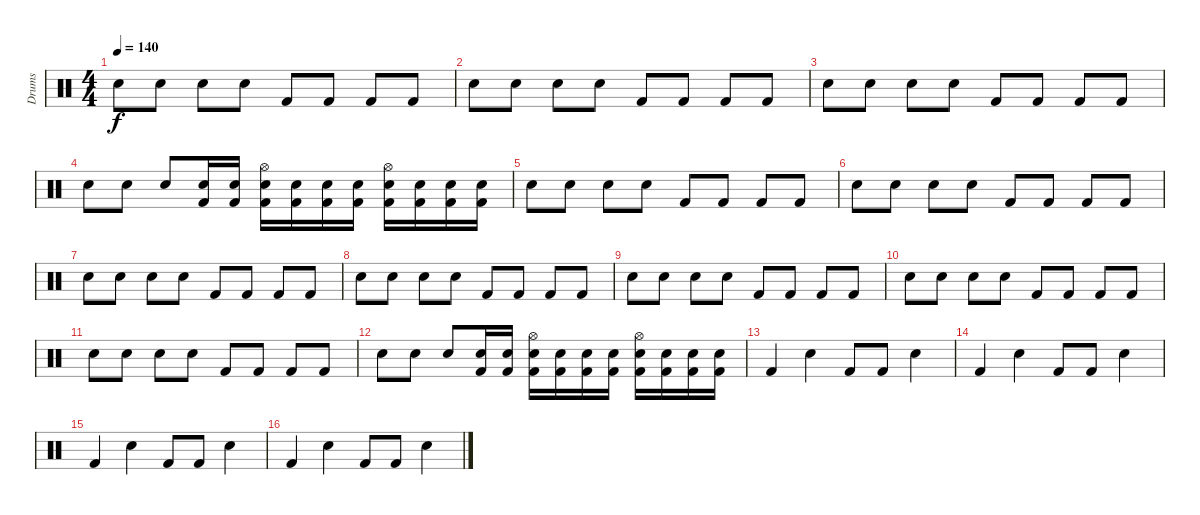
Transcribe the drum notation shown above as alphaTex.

\track ("Drums" "Drums") {instrument percussion}
\staff {score}
\articulation defaults
\ts (4 4)
\tempo 140
\clef neutral
\ks c "Snare (hit) 2".8{dy f} "Snare (hit) 2".8 "Snare (hit) 2".8 "Snare (hit) 2".8 "Kick (hit) 2".8 "Kick (hit) 2".8 "Kick (hit) 2".8 "Kick (hit) 2".8
|
"Snare (hit) 2".8 "Snare (hit) 2".8 "Snare (hit) 2".8 "Snare (hit) 2".8 "Kick (hit) 2".8 "Kick (hit) 2".8 "Kick (hit) 2".8 "Kick (hit) 2".8 |
"Snare (hit) 2".8 "Snare (hit) 2".8 "Snare (hit) 2".8 "Snare (hit) 2".8 "Kick (hit) 2".8 "Kick (hit) 2".8 "Kick (hit) 2".8 "Kick (hit) 2".8 |
"Snare (hit) 2".8 "Snare (hit) 2".8 "Snare (hit) 2".8 ("Kick (hit) 2" "Snare (hit) 2").16 ("Kick (hit) 2" "Snare (hit) 2").16 ("Kick (hit) 2" "Snare (hit) 2" "Hi-Hat (open)").16 ("Kick (hit) 2" "Snare (hit) 2").16 ("Kick (hit) 2" "Snare (hit) 2").16 ("Kick (hit) 2" "Snare (hit) 2").16 ("Kick (hit) 2" "Snare (hit) 2" "Hi-Hat (open)").16 ("Kick (hit) 2" "Snare (hit) 2").16 ("Kick (hit) 2" "Snare (hit) 2").16 ("Kick (hit) 2" "Snare (hit) 2").16 |
"Snare (hit) 2".8 "Snare (hit) 2".8 "Snare (hit) 2".8 "Snare (hit) 2".8 "Kick (hit) 2".8 "Kick (hit) 2".8 "Kick (hit) 2".8 "Kick (hit) 2".8 |
"Snare (hit) 2".8 "Snare (hit) 2".8 "Snare (hit) 2".8 "Snare (hit) 2".8 "Kick (hit) 2".8 "Kick (hit) 2".8 "Kick (hit) 2".8 "Kick (hit) 2".8 |
"Snare (hit) 2".8 "Snare (hit) 2".8 "Snare (hit) 2".8 "Snare (hit) 2".8 "Kick (hit) 2".8 "Kick (hit) 2".8 "Kick (hit) 2".8 "Kick (hit) 2".8 |
"Snare (hit) 2".8 "Snare (hit) 2".8 "Snare (hit) 2".8 "Snare (hit) 2".8 "Kick (hit) 2".8 "Kick (hit) 2".8 "Kick (hit) 2".8 "Kick (hit) 2".8 |
"Snare (hit) 2".8 "Snare (hit) 2".8 "Snare (hit) 2".8 "Snare (hit) 2".8 "Kick (hit) 2".8 "Kick (hit) 2".8 "Kick (hit) 2".8 "Kick (hit) 2".8 |
"Snare (hit) 2".8 "Snare (hit) 2".8 "Snare (hit) 2".8 "Snare (hit) 2".8 "Kick (hit) 2".8 "Kick (hit) 2".8 "Kick (hit) 2".8 "Kick (hit) 2".8 |
"Snare (hit) 2".8 "Snare (hit) 2".8 "Snare (hit) 2".8 "Snare (hit) 2".8 "Kick (hit) 2".8 "Kick (hit) 2".8 "Kick (hit) 2".8 "Kick (hit) 2".8 |
"Snare (hit) 2".8 "Snare (hit) 2".8 "Snare (hit) 2".8 ("Kick (hit) 2" "Snare (hit) 2").16 ("Kick (hit) 2" "Snare (hit) 2").16 ("Kick (hit) 2" "Snare (hit) 2" "Hi-Hat (open)").16 ("Kick (hit) 2" "Snare (hit) 2").16 ("Kick (hit) 2" "Snare (hit) 2").16 ("Kick (hit) 2" "Snare (hit) 2").16 ("Kick (hit) 2" "Snare (hit) 2" "Hi-Hat (open)").16 ("Kick (hit) 2" "Snare (hit) 2").16 ("Kick (hit) 2" "Snare (hit) 2").16 ("Kick (hit) 2" "Snare (hit) 2").16 |
"Kick (hit) 2".4 "Snare (hit) 2".4 "Kick (hit) 2".8 "Kick (hit) 2".8 "Snare (hit) 2".4 |
"Kick (hit) 2".4 "Snare (hit) 2".4 "Kick (hit) 2".8 "Kick (hit) 2".8 "Snare (hit) 2".4 |
"Kick (hit) 2".4 "Snare (hit) 2".4 "Kick (hit) 2".8 "Kick (hit) 2".8 "Snare (hit) 2".4 |
"Kick (hit) 2".4 "Snare (hit) 2".4 "Kick (hit) 2".8 "Kick (hit) 2".8 "Snare (hit) 2".4
